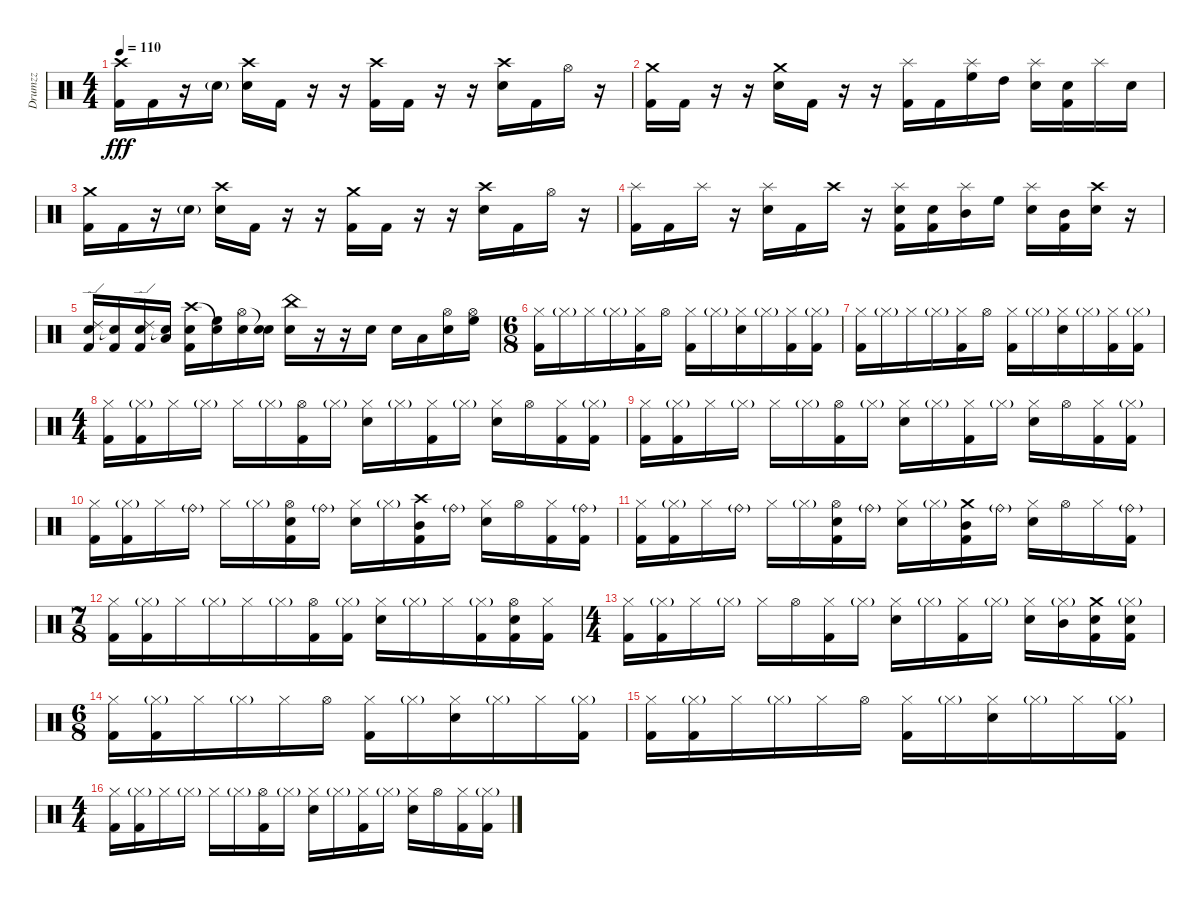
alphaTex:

\track ("Drumzz" "Drumzz") {instrument percussion}
\staff {score}
\articulation defaults
\ts (4 4)
\tempo 110
\clef neutral
\ks c
("Crash high (hit)" "Kick (hit) 2").16{dy fff} "Kick (hit) 2".16 r.16 "Snare (hit) 2"{g}.16 ("Crash high (hit)" "Snare (hit) 2").16 "Kick (hit) 2".16 r.16 r.16 ("Crash high (hit)" "Kick (hit) 2").16 "Kick (hit) 2".16 r.16 r.16 ("Crash high (hit)" "Snare (hit) 2").16 "Kick (hit) 2".16 "Hi-Hat (open)".16 r.16 |
("Crash medium (hit)" "Kick (hit) 2").16 "Kick (hit) 2".16 r.16 r.16 ("Crash medium (hit)" "Snare (hit) 2").16 "Kick (hit) 2".16 r.16 r.16 ("Splash (hit)" "Kick (hit) 2").16 "Kick (hit) 2".16 ("Splash (hit)" "High Floor Tom (hit)").16 "High Tom (hit)".16 ("Splash (hit)" "Snare (hit) 2").16 ("Snare (hit) 2" "Kick (hit) 2").16 "Splash (hit)".16 "Snare (hit) 2".16 |
("Crash medium (hit)" "Kick (hit) 2").16 "Kick (hit) 2".16 r.16 "Snare (hit) 2"{g}.16 ("Crash high (hit)" "Snare (hit) 2").16 "Kick (hit) 2".16 r.16 r.16 ("Crash medium (hit)" "Kick (hit) 2").16 "Kick (hit) 2".16 r.16 r.16 ("Crash high (hit)" "Snare (hit) 2").16 "Kick (hit) 2".16 "Hi-Hat (open)".16 r.16 |
("Splash (hit)" "Kick (hit) 2").16 "Kick (hit) 2".16 "Splash (hit)".16 r.16 ("Splash (hit)" "Snare (hit) 2").16 "Kick (hit) 2".16 "Crash high (hit)".16 r.16 ("Splash (hit)" "Snare (hit) 2" "Kick (hit) 2").16 ("Snare (hit) 2" "Kick (hit) 2").16 ("Splash (hit)" "Mid Tom (hit)").16 "High Floor Tom (hit)".16 ("Splash (hit)" "Snare (hit) 2").16 ("Mid Tom (hit)" "Kick (hit) 2").16 ("Crash high (hit)" "Snare (hit) 2").16 r.16 |
("Ride (edge) 2" "Snare (hit) 2" "Kick (hit) 2").16 ("Snare (hit)"{t} "Kick (hit) 2").16 ("Ride (edge) 2" "Snare (hit) 2" "Kick (hit) 2").16 ("Snare (hit)"{t} "Low Tom (hit)").16 ("Crash high (hit)" "Snare (hit) 2" "Kick (hit) 2").16 ("Snare (hit)"{t} "High Floor Tom (hit)").16 ("Hi-Hat (open)" "Snare (hit) 2").16 ("Snare (hit)"{t} "Snare (hit) 2").16 ("China (hit)" "Snare (hit) 2").16 r.16 r.16 "Snare (hit) 2".16 "Snare (hit) 2".16 "Low Tom (hit)".16 ("Hi-Hat (open)" "Snare (hit) 2").16 ("Hi-Hat (open)" "High Floor Tom (hit)").16 |
\ts (6 8)
("Hi-Hat (closed)" "Kick (hit) 2").16{volume 12} "Hi-Hat (closed)"{g}.16 "Hi-Hat (closed)".16 "Hi-Hat (closed)"{g}.16 ("Hi-Hat (closed)" "Kick (hit) 2").16 "Hi-Hat (open)".16 ("Hi-Hat (closed)" "Kick (hit) 2").16 "Hi-Hat (closed)"{g}.16 ("Hi-Hat (closed)" "Snare (hit) 2").16 "Hi-Hat (closed)"{g}.16 ("Hi-Hat (closed)" "Kick (hit) 2").16 ("Hi-Hat (closed)"{g} "Kick (hit) 2").16 |
("Hi-Hat (closed)" "Kick (hit) 2").16 "Hi-Hat (closed)"{g}.16 "Hi-Hat (closed)".16 "Hi-Hat (closed)"{g}.16 ("Hi-Hat (closed)" "Kick (hit) 2").16 "Hi-Hat (open)".16 ("Hi-Hat (closed)" "Kick (hit) 2").16 "Hi-Hat (closed)"{g}.16 ("Hi-Hat (closed)" "Snare (hit) 2").16 "Hi-Hat (closed)"{g}.16 ("Hi-Hat (closed)" "Kick (hit) 2").16 ("Hi-Hat (closed)"{g} "Kick (hit) 2").16 |
\ts (4 4)
("Hi-Hat (closed)" "Kick (hit) 2").16 ("Hi-Hat (closed)"{g} "Kick (hit) 2").16 "Hi-Hat (closed)".16 "Hi-Hat (closed)"{g}.16 "Hi-Hat (closed)".16 "Hi-Hat (closed)"{g}.16 ("Hi-Hat (open)" "Kick (hit) 2").16 "Hi-Hat (closed)"{g}.16 ("Hi-Hat (closed)" "Snare (hit) 2").16 "Hi-Hat (closed)"{g}.16 ("Hi-Hat (closed)" "Kick (hit) 2").16 "Hi-Hat (closed)"{g}.16 ("Hi-Hat (closed)" "Snare (hit) 2").16 "Hi-Hat (open)".16 ("Hi-Hat (closed)" "Kick (hit) 2").16 ("Hi-Hat (closed)"{g} "Kick (hit) 2").16 |
("Hi-Hat (closed)" "Kick (hit) 2").16 ("Hi-Hat (closed)"{g} "Kick (hit) 2").16 "Hi-Hat (closed)".16 "Hi-Hat (closed)"{g}.16 "Hi-Hat (closed)".16 "Hi-Hat (closed)"{g}.16 ("Hi-Hat (open)" "Kick (hit) 2").16 "Hi-Hat (closed)"{g}.16 ("Hi-Hat (closed)" "Snare (hit) 2").16 "Hi-Hat (closed)"{g}.16 ("Hi-Hat (closed)" "Kick (hit) 2").16 "Hi-Hat (closed)"{g}.16 ("Hi-Hat (closed)" "Snare (hit) 2").16 "Hi-Hat (open)".16 ("Hi-Hat (closed)" "Kick (hit) 2").16 ("Hi-Hat (closed)"{g} "Kick (hit) 2").16 |
("Hi-Hat (closed)" "Kick (hit) 2").16 ("Hi-Hat (closed)"{g} "Kick (hit) 2").16 "Hi-Hat (closed)".16 "Ride (bell)"{g}.16 "Hi-Hat (closed)".16 "Hi-Hat (closed)"{g}.16 ("Hi-Hat (open)" "Snare (hit) 2" "Kick (hit) 2").16 "Ride (bell)"{g}.16 ("Hi-Hat (closed)" "Snare (hit) 2").16 "Hi-Hat (closed)"{g}.16 ("Crash high (hit)" "Mid Tom (hit)" "Kick (hit) 2").16 "Ride (bell)"{g}.16 ("Hi-Hat (closed)" "Snare (hit) 2").16 "Hi-Hat (open)".16 ("Hi-Hat (closed)" "Kick (hit) 2").16 ("Ride (bell)"{g} "Kick (hit) 2").16 |
("Hi-Hat (closed)" "Kick (hit) 2").16 ("Hi-Hat (closed)"{g} "Kick (hit) 2").16 "Hi-Hat (closed)".16 "Ride (bell)"{g}.16 "Hi-Hat (closed)".16 "Hi-Hat (closed)"{g}.16 ("Hi-Hat (open)" "Snare (hit) 2" "Kick (hit) 2").16 "Ride (bell)"{g}.16 ("Hi-Hat (closed)" "Snare (hit) 2").16 "Hi-Hat (closed)"{g}.16 ("Crash medium (hit)" "Mid Tom (hit)" "Kick (hit) 2").16 "Ride (bell)"{g}.16 ("Hi-Hat (closed)" "Snare (hit) 2").16 "Hi-Hat (open)".16 "Hi-Hat (closed)".16 ("Ride (bell)"{g} "Kick (hit) 2").16 |
\ts (7 8)
("Hi-Hat (closed)" "Kick (hit) 2").16 ("Hi-Hat (closed)"{g} "Kick (hit) 2").16 "Hi-Hat (closed)".16 "Hi-Hat (closed)"{g}.16 "Hi-Hat (closed)".16 "Hi-Hat (closed)"{g}.16 ("Hi-Hat (open)" "Kick (hit) 2").16 ("Hi-Hat (closed)"{g} "Kick (hit) 2").16 ("Hi-Hat (closed)" "Snare (hit) 2").16 "Hi-Hat (closed)"{g}.16 "Hi-Hat (closed)".16 ("Hi-Hat (closed)"{g} "Kick (hit) 2").16 ("Hi-Hat (open)" "Snare (hit) 2" "Kick (hit) 2").16 ("Hi-Hat (closed)" "Kick (hit) 2").16 |
\ts (4 4)
("Hi-Hat (closed)" "Kick (hit) 2").16 ("Hi-Hat (closed)"{g} "Kick (hit) 2").16 "Hi-Hat (closed)".16 "Hi-Hat (closed)"{g}.16 "Hi-Hat (closed)".16 "Hi-Hat (open)".16 ("Hi-Hat (closed)" "Kick (hit) 2").16 "Hi-Hat (closed)"{g}.16 ("Hi-Hat (closed)" "Snare (hit) 2").16 "Hi-Hat (closed)"{g}.16 ("Hi-Hat (closed)" "Kick (hit) 2").16 "Hi-Hat (closed)"{g}.16 ("Hi-Hat (closed)" "Snare (hit) 2").16 ("Hi-Hat (closed)"{g} "Mid Tom (hit)").16 ("Crash medium (hit)" "Snare (hit) 2" "Kick (hit) 2").16 ("Hi-Hat (closed)"{g} "Snare (hit) 2" "Kick (hit) 2").16 |
\ts (6 8)
("Hi-Hat (closed)" "Kick (hit) 2").16{volume 11} ("Hi-Hat (closed)"{g} "Kick (hit) 2").16 "Hi-Hat (closed)".16 "Hi-Hat (closed)"{g}.16 "Hi-Hat (closed)".16 "Hi-Hat (open)".16 ("Hi-Hat (closed)" "Kick (hit) 2").16 "Hi-Hat (closed)"{g}.16 ("Hi-Hat (closed)" "Snare (hit) 2").16 "Hi-Hat (closed)"{g}.16 "Hi-Hat (closed)".16 ("Hi-Hat (closed)"{g} "Kick (hit) 2").16 |
("Hi-Hat (closed)" "Kick (hit) 2").16 ("Hi-Hat (closed)"{g} "Kick (hit) 2").16 "Hi-Hat (closed)".16 "Hi-Hat (closed)"{g}.16 "Hi-Hat (closed)".16 "Hi-Hat (open)".16 ("Hi-Hat (closed)" "Kick (hit) 2").16 "Hi-Hat (closed)"{g}.16 ("Hi-Hat (closed)" "Snare (hit) 2").16 "Hi-Hat (closed)"{g}.16 "Hi-Hat (closed)".16 ("Hi-Hat (closed)"{g} "Kick (hit) 2").16 |
\ts (4 4)
("Hi-Hat (closed)" "Kick (hit) 2").16 ("Hi-Hat (closed)"{g} "Kick (hit) 2").16 "Hi-Hat (closed)".16 "Hi-Hat (closed)"{g}.16 "Hi-Hat (closed)".16 "Hi-Hat (closed)"{g}.16 ("Hi-Hat (open)" "Kick (hit) 2").16 "Hi-Hat (closed)"{g}.16 ("Hi-Hat (closed)" "Snare (hit) 2").16 "Hi-Hat (closed)"{g}.16 ("Hi-Hat (closed)" "Kick (hit) 2").16 "Hi-Hat (closed)"{g}.16 ("Hi-Hat (closed)" "Snare (hit) 2").16 "Hi-Hat (open)".16 ("Hi-Hat (closed)" "Kick (hit) 2").16 ("Hi-Hat (closed)"{g} "Kick (hit) 2").16
